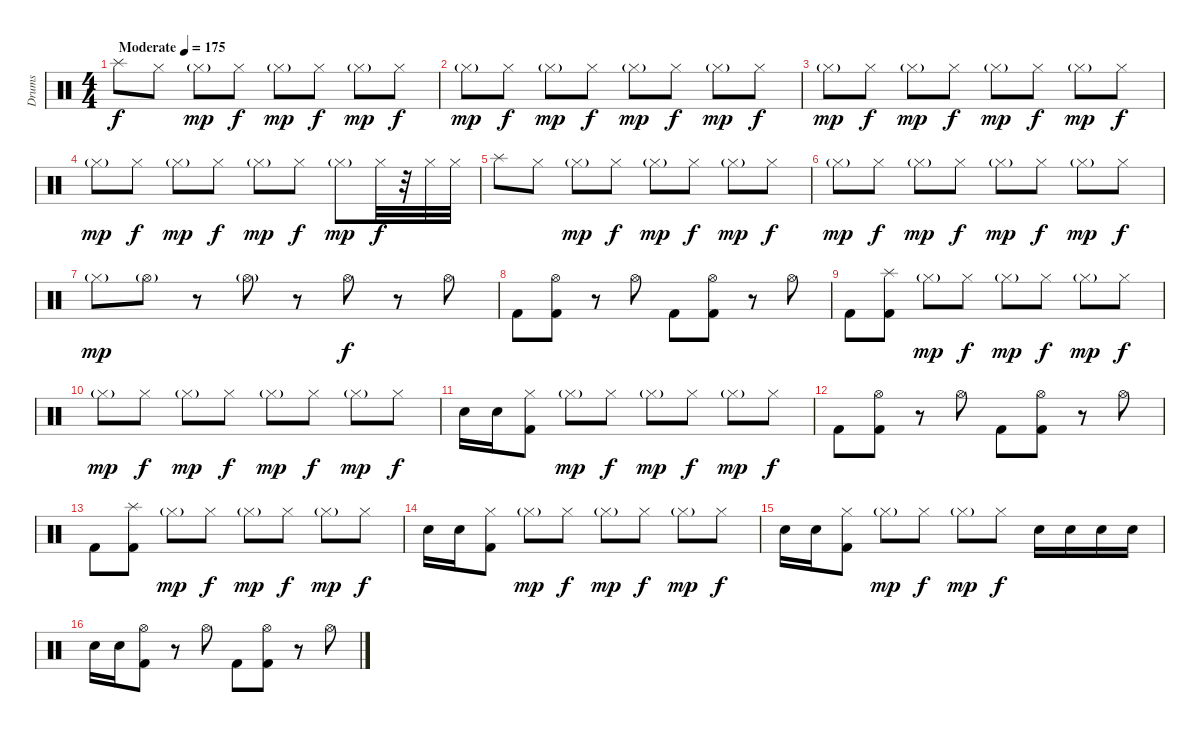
\track ("Drums" "Drums") {instrument percussion}
\staff {score}
\articulation defaults
\ts (4 4)
\tempo (175 "Moderate")
\clef neutral
\ks c "Splash (hit)".8{dy f} "Hi-Hat (closed)".8 "Hi-Hat (closed)"{g}.8{dy mp} "Hi-Hat (closed)".8{dy f} "Hi-Hat (closed)"{g}.8{dy mp} "Hi-Hat (closed)".8{dy f} "Hi-Hat (closed)"{g}.8{dy mp} "Hi-Hat (closed)".8{dy f}
|
"Hi-Hat (closed)"{g}.8{dy mp} "Hi-Hat (closed)".8{dy f} "Hi-Hat (closed)"{g}.8{dy mp} "Hi-Hat (closed)".8{dy f} "Hi-Hat (closed)"{g}.8{dy mp} "Hi-Hat (closed)".8{dy f} "Hi-Hat (closed)"{g}.8{dy mp} "Hi-Hat (closed)".8{dy f} |
"Hi-Hat (closed)"{g}.8{dy mp} "Hi-Hat (closed)".8{dy f} "Hi-Hat (closed)"{g}.8{dy mp} "Hi-Hat (closed)".8{dy f} "Hi-Hat (closed)"{g}.8{dy mp} "Hi-Hat (closed)".8{dy f} "Hi-Hat (closed)"{g}.8{dy mp} "Hi-Hat (closed)".8{dy f} |
"Hi-Hat (closed)"{g}.8{dy mp} "Hi-Hat (closed)".8{dy f} "Hi-Hat (closed)"{g}.8{dy mp} "Hi-Hat (closed)".8{dy f} "Hi-Hat (closed)"{g}.8{dy mp} "Hi-Hat (closed)".8{dy f} "Hi-Hat (closed)"{g}.8{dy mp} "Hi-Hat (closed)".32{dy f} r.32 "Hi-Hat (closed)".32 "Hi-Hat (closed)".32 |
"Splash (hit)".8 "Hi-Hat (closed)".8 "Hi-Hat (closed)"{g}.8{dy mp} "Hi-Hat (closed)".8{dy f} "Hi-Hat (closed)"{g}.8{dy mp} "Hi-Hat (closed)".8{dy f} "Hi-Hat (closed)"{g}.8{dy mp} "Hi-Hat (closed)".8{dy f} |
"Hi-Hat (closed)"{g}.8{dy mp} "Hi-Hat (closed)".8{dy f} "Hi-Hat (closed)"{g}.8{dy mp} "Hi-Hat (closed)".8{dy f} "Hi-Hat (closed)"{g}.8{dy mp} "Hi-Hat (closed)".8{dy f} "Hi-Hat (closed)"{g}.8{dy mp} "Hi-Hat (closed)".8{dy f} |
"Hi-Hat (closed)"{g}.8{dy mp} "Hi-Hat (open)"{g}.8 r.8 "Hi-Hat (open)"{g}.8 r.8 "Hi-Hat (open)".8{dy f} r.8 "Hi-Hat (open)".8 |
"Kick (hit) 2".8 ("Hi-Hat (open)" "Kick (hit) 2").8 r.8 "Hi-Hat (open)".8 "Kick (hit) 2".8 ("Hi-Hat (open)" "Kick (hit) 2").8 r.8 "Hi-Hat (open)".8 |
"Kick (hit) 2".8 ("Splash (hit)" "Kick (hit) 2").8 "Hi-Hat (closed)"{g}.8{dy mp} "Hi-Hat (closed)".8{dy f} "Hi-Hat (closed)"{g}.8{dy mp} "Hi-Hat (closed)".8{dy f} "Hi-Hat (closed)"{g}.8{dy mp} "Hi-Hat (closed)".8{dy f} |
"Hi-Hat (closed)"{g}.8{dy mp} "Hi-Hat (closed)".8{dy f} "Hi-Hat (closed)"{g}.8{dy mp} "Hi-Hat (closed)".8{dy f} "Hi-Hat (closed)"{g}.8{dy mp} "Hi-Hat (closed)".8{dy f} "Hi-Hat (closed)"{g}.8{dy mp} "Hi-Hat (closed)".8{dy f} |
"Snare (hit) 2".16 "Snare (hit) 2".16 ("Hi-Hat (closed)" "Kick (hit) 2").8 "Hi-Hat (closed)"{g}.8{dy mp} "Hi-Hat (closed)".8{dy f} "Hi-Hat (closed)"{g}.8{dy mp} "Hi-Hat (closed)".8{dy f} "Hi-Hat (closed)"{g}.8{dy mp} "Hi-Hat (closed)".8{dy f} |
"Kick (hit) 2".8 ("Hi-Hat (open)" "Kick (hit) 2").8 r.8 "Hi-Hat (open)".8 "Kick (hit) 2".8 ("Hi-Hat (open)" "Kick (hit) 2").8 r.8 "Hi-Hat (open)".8 |
"Kick (hit) 2".8 ("Splash (hit)" "Kick (hit) 2").8 "Hi-Hat (closed)"{g}.8{dy mp} "Hi-Hat (closed)".8{dy f} "Hi-Hat (closed)"{g}.8{dy mp} "Hi-Hat (closed)".8{dy f} "Hi-Hat (closed)"{g}.8{dy mp} "Hi-Hat (closed)".8{dy f} |
"Snare (hit) 2".16 "Snare (hit) 2".16 ("Hi-Hat (closed)" "Kick (hit) 2").8 "Hi-Hat (closed)"{g}.8{dy mp} "Hi-Hat (closed)".8{dy f} "Hi-Hat (closed)"{g}.8{dy mp} "Hi-Hat (closed)".8{dy f} "Hi-Hat (closed)"{g}.8{dy mp} "Hi-Hat (closed)".8{dy f} |
"Snare (hit) 2".16 "Snare (hit) 2".16 ("Hi-Hat (closed)" "Kick (hit) 2").8 "Hi-Hat (closed)"{g}.8{dy mp} "Hi-Hat (closed)".8{dy f} "Hi-Hat (closed)"{g}.8{dy mp} "Hi-Hat (closed)".8{dy f} "Snare (hit) 2".16 "Snare (hit) 2".16 "Snare (hit) 2".16 "Snare (hit) 2".16 |
"Snare (hit) 2".16 "Snare (hit) 2".16 ("Hi-Hat (open)" "Kick (hit) 2").8 r.8 "Hi-Hat (open)".8 "Kick (hit) 2".8 ("Hi-Hat (open)" "Kick (hit) 2").8 r.8 "Hi-Hat (open)".8
